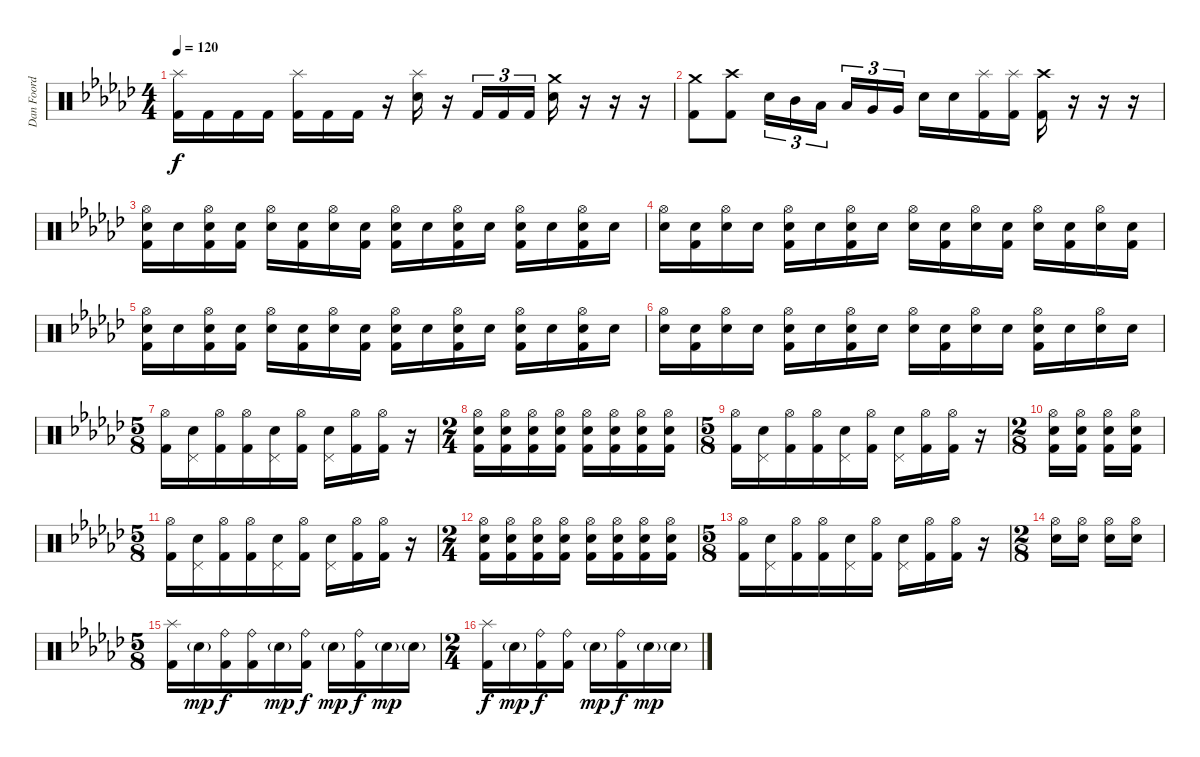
\track ("Dan Foord 2" "Dan Foord ") {instrument percussion}
\staff {score}
\articulation defaults
\ts (4 4)
\tempo 120
\clef neutral
\ks gb
("Splash (hit)" "Kick (hit) 2").16{dy f} "Kick (hit) 2".16 "Kick (hit) 2".16 "Kick (hit) 2".16 ("Splash (hit)" "Kick (hit) 2").16 "Kick (hit) 2".16 "Kick (hit) 2".16 r.16 ("Splash (hit)" "Snare (hit) 2").16 r.16 "Kick (hit) 2".16{tu (3 2)} "Kick (hit) 2".16{tu (3 2)} "Kick (hit) 2".16{tu (3 2)} ("Crash medium (hit)" "Snare (hit) 2").16 r.16 r.16 r.16 |
("Crash medium (hit)" "Kick (hit) 2").8 ("Crash high (hit)" "Kick (hit) 2").8 "Snare (hit) 2".16{tu (3 2)} "Mid Tom (hit)".16{tu (3 2)} "Low Tom (hit)".16{tu (3 2) beam splitsecondary} "Low Tom (hit)".16{tu (3 2)} "Very Low Tom (hit)".16{tu (3 2)} "Very Low Tom (hit)".16{tu (3 2)} "Snare (hit) 2".16 "Snare (hit) 2".16 ("Splash (hit)" "Kick (hit) 2").16 ("Splash (hit)" "Kick (hit) 2").16 ("Crash high (hit)" "Kick (hit) 2").16 r.16 r.16 r.16 |
("Hi-Hat (open)" "Snare (hit) 2" "Kick (hit) 2").16 "Snare (hit) 2".16 ("Hi-Hat (open)" "Snare (hit) 2" "Kick (hit) 2").16 ("Snare (hit) 2" "Kick (hit) 2").16 ("Hi-Hat (open)" "Snare (hit) 2").16 ("Snare (hit) 2" "Kick (hit) 2").16 ("Hi-Hat (open)" "Snare (hit) 2").16 ("Snare (hit) 2" "Kick (hit) 2").16 ("Hi-Hat (open)" "Snare (hit) 2" "Kick (hit) 2").16 "Snare (hit) 2".16 ("Hi-Hat (open)" "Snare (hit) 2" "Kick (hit) 2").16 "Snare (hit) 2".16 ("Hi-Hat (open)" "Snare (hit) 2" "Kick (hit) 2").16 "Snare (hit) 2".16 ("Hi-Hat (open)" "Snare (hit) 2" "Kick (hit) 2").16 "Snare (hit) 2".16 |
("Hi-Hat (open)" "Snare (hit) 2").16 ("Snare (hit) 2" "Kick (hit) 2").16 ("Hi-Hat (open)" "Snare (hit) 2").16 "Snare (hit) 2".16 ("Hi-Hat (open)" "Snare (hit) 2" "Kick (hit) 2").16 "Snare (hit) 2".16 ("Hi-Hat (open)" "Snare (hit) 2" "Kick (hit) 2").16 "Snare (hit) 2".16 ("Hi-Hat (open)" "Snare (hit) 2").16 ("Snare (hit) 2" "Kick (hit) 2").16 ("Hi-Hat (open)" "Snare (hit) 2").16 ("Snare (hit) 2" "Kick (hit) 2").16 ("Hi-Hat (open)" "Snare (hit) 2").16 ("Snare (hit) 2" "Kick (hit) 2").16 ("Hi-Hat (open)" "Snare (hit) 2").16 ("Snare (hit) 2" "Kick (hit) 2").16 |
("Hi-Hat (open)" "Snare (hit) 2" "Kick (hit) 2").16 "Snare (hit) 2".16 ("Hi-Hat (open)" "Snare (hit) 2" "Kick (hit) 2").16 ("Snare (hit) 2" "Kick (hit) 2").16 ("Hi-Hat (open)" "Snare (hit) 2").16 ("Snare (hit) 2" "Kick (hit) 2").16 ("Hi-Hat (open)" "Snare (hit) 2").16 ("Snare (hit) 2" "Kick (hit) 2").16 ("Hi-Hat (open)" "Snare (hit) 2" "Kick (hit) 2").16 "Snare (hit) 2".16 ("Hi-Hat (open)" "Snare (hit) 2" "Kick (hit) 2").16 "Snare (hit) 2".16 ("Hi-Hat (open)" "Snare (hit) 2" "Kick (hit) 2").16 "Snare (hit) 2".16 ("Hi-Hat (open)" "Snare (hit) 2" "Kick (hit) 2").16 "Snare (hit) 2".16 |
("Hi-Hat (open)" "Snare (hit) 2").16 ("Snare (hit) 2" "Kick (hit) 2").16 ("Hi-Hat (open)" "Snare (hit) 2").16 "Snare (hit) 2".16 ("Hi-Hat (open)" "Snare (hit) 2" "Kick (hit) 2").16 "Snare (hit) 2".16 ("Hi-Hat (open)" "Snare (hit) 2" "Kick (hit) 2").16 "Snare (hit) 2".16 ("Hi-Hat (open)" "Snare (hit) 2").16 ("Snare (hit) 2" "Kick (hit) 2").16 ("Hi-Hat (open)" "Snare (hit) 2").16 "Snare (hit) 2".16 ("Hi-Hat (open)" "Snare (hit) 2" "Kick (hit) 2").16 "Snare (hit) 2".16 ("Hi-Hat (open)" "Snare (hit) 2").16 "Snare (hit) 2".16 |
\ts (5 8)
("Hi-Hat (open)" "Kick (hit) 2").16 ("Snare (hit) 2" "Pedal Hi-Hat (hit)").16 ("Hi-Hat (open)" "Kick (hit) 2").16 ("Hi-Hat (open)" "Kick (hit) 2").16 ("Snare (hit) 2" "Pedal Hi-Hat (hit)").16 ("Hi-Hat (open)" "Kick (hit) 2").16 ("Snare (hit) 2" "Pedal Hi-Hat (hit)").16 ("Hi-Hat (open)" "Kick (hit) 2").16 ("Hi-Hat (open)" "Kick (hit) 2").16 r.16 |
\ts (2 4)
("Hi-Hat (open)" "Snare (hit) 2" "Kick (hit) 2").16 ("Hi-Hat (open)" "Snare (hit) 2" "Kick (hit) 2").16 ("Hi-Hat (open)" "Snare (hit) 2" "Kick (hit) 2").16 ("Hi-Hat (open)" "Snare (hit) 2" "Kick (hit) 2").16 ("Hi-Hat (open)" "Snare (hit) 2" "Kick (hit) 2").16 ("Hi-Hat (open)" "Snare (hit) 2" "Kick (hit) 2").16 ("Hi-Hat (open)" "Snare (hit) 2" "Kick (hit) 2").16 ("Hi-Hat (open)" "Snare (hit) 2" "Kick (hit) 2").16 |
\ts (5 8)
("Hi-Hat (open)" "Kick (hit) 2").16 ("Snare (hit) 2" "Pedal Hi-Hat (hit)").16 ("Hi-Hat (open)" "Kick (hit) 2").16 ("Hi-Hat (open)" "Kick (hit) 2").16 ("Snare (hit) 2" "Pedal Hi-Hat (hit)").16 ("Hi-Hat (open)" "Kick (hit) 2").16 ("Snare (hit) 2" "Pedal Hi-Hat (hit)").16 ("Hi-Hat (open)" "Kick (hit) 2").16 ("Hi-Hat (open)" "Kick (hit) 2").16 r.16 |
\ts (2 8)
("Hi-Hat (open)" "Snare (hit) 2" "Kick (hit) 2").16 ("Hi-Hat (open)" "Snare (hit) 2" "Kick (hit) 2").16 ("Hi-Hat (open)" "Snare (hit) 2" "Kick (hit) 2").16 ("Hi-Hat (open)" "Snare (hit) 2" "Kick (hit) 2").16 |
\ts (5 8)
("Hi-Hat (open)" "Kick (hit) 2").16 ("Snare (hit) 2" "Pedal Hi-Hat (hit)").16 ("Hi-Hat (open)" "Kick (hit) 2").16 ("Hi-Hat (open)" "Kick (hit) 2").16 ("Snare (hit) 2" "Pedal Hi-Hat (hit)").16 ("Hi-Hat (open)" "Kick (hit) 2").16 ("Snare (hit) 2" "Pedal Hi-Hat (hit)").16 ("Hi-Hat (open)" "Kick (hit) 2").16 ("Hi-Hat (open)" "Kick (hit) 2").16 r.16 |
\ts (2 4)
("Hi-Hat (open)" "Snare (hit) 2" "Kick (hit) 2").16 ("Hi-Hat (open)" "Snare (hit) 2" "Kick (hit) 2").16 ("Hi-Hat (open)" "Snare (hit) 2" "Kick (hit) 2").16 ("Hi-Hat (open)" "Snare (hit) 2" "Kick (hit) 2").16 ("Hi-Hat (open)" "Snare (hit) 2" "Kick (hit) 2").16 ("Hi-Hat (open)" "Snare (hit) 2" "Kick (hit) 2").16 ("Hi-Hat (open)" "Snare (hit) 2" "Kick (hit) 2").16 ("Hi-Hat (open)" "Snare (hit) 2" "Kick (hit) 2").16 |
\ts (5 8)
("Hi-Hat (open)" "Kick (hit) 2").16 ("Snare (hit) 2" "Pedal Hi-Hat (hit)").16 ("Hi-Hat (open)" "Kick (hit) 2").16 ("Hi-Hat (open)" "Kick (hit) 2").16 ("Snare (hit) 2" "Pedal Hi-Hat (hit)").16 ("Hi-Hat (open)" "Kick (hit) 2").16 ("Snare (hit) 2" "Pedal Hi-Hat (hit)").16 ("Hi-Hat (open)" "Kick (hit) 2").16 ("Hi-Hat (open)" "Kick (hit) 2").16 r.16 |
\ts (2 8)
("Hi-Hat (open)" "Snare (hit) 2").16 ("Hi-Hat (open)" "Snare (hit) 2").16 ("Hi-Hat (open)" "Snare (hit) 2").16 ("Hi-Hat (open)" "Snare (hit) 2").16 |
\ts (5 8)
("Splash (hit)" "Kick (hit) 2").16 "Snare (hit) 2"{g}.16{dy mp} ("Ride (bell)" "Kick (hit) 2").16{dy f} ("Ride (bell)" "Kick (hit) 2").16 "Snare (hit) 2"{g}.16{dy mp} ("Ride (bell)" "Kick (hit) 2").16{dy f} "Snare (hit) 2"{g}.16{dy mp} ("Ride (bell)" "Kick (hit) 2").16{dy f} "Snare (hit) 2"{g}.16{dy mp} "Snare (hit) 2"{g}.16 |
\ts (2 4)
("Splash (hit)" "Kick (hit) 2").16{dy f} "Snare (hit) 2"{g}.16{dy mp} ("Ride (bell)" "Kick (hit) 2").16{dy f} ("Ride (bell)" "Kick (hit) 2").16 "Snare (hit) 2"{g}.16{dy mp} ("Ride (bell)" "Kick (hit) 2").16{dy f} "Snare (hit) 2"{g}.16{dy mp} "Snare (hit) 2"{g}.16
